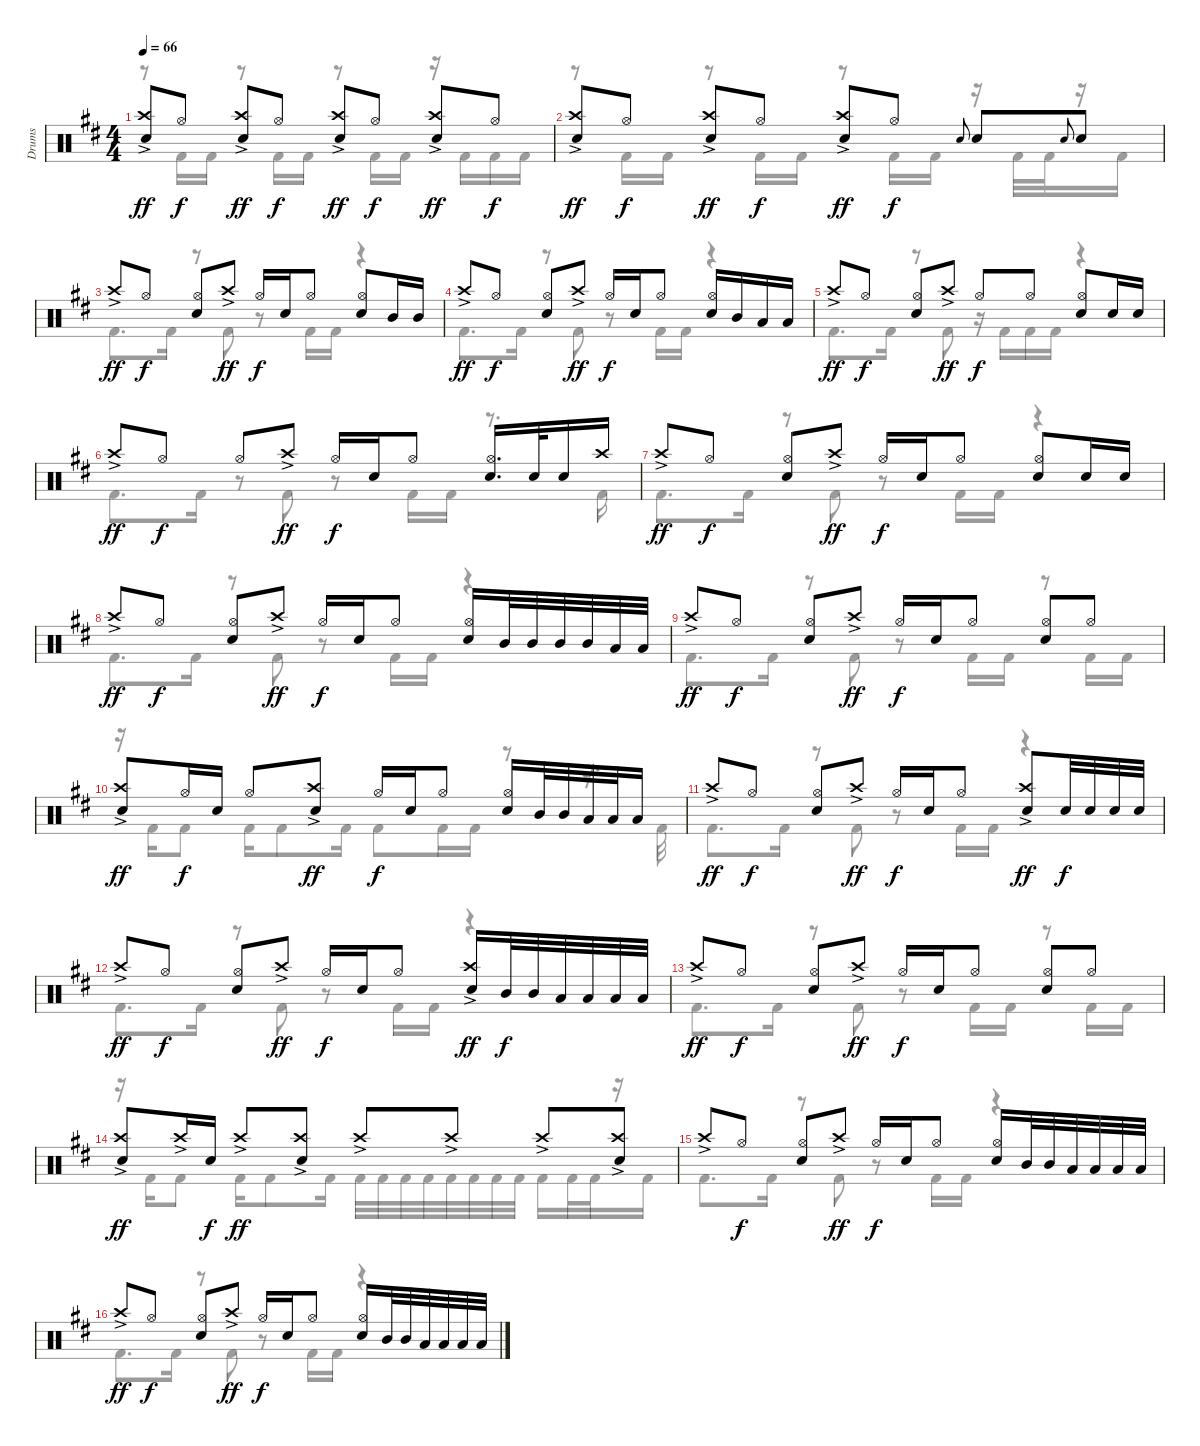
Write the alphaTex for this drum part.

\track ("Drums" "Drums") {instrument percussion}
\staff {score}
\articulation defaults
\voice
\ts (4 4)
\tempo 66
\clef neutral
\ks d
("Crash high (hit)"{ac} "Electric Snare (hit)").8{dy ff} "Hi-Hat (open)".8{dy f} ("Crash high (hit)"{ac} "Electric Snare (hit)").8{dy ff} "Hi-Hat (open)".8{dy f} ("Crash high (hit)"{ac} "Electric Snare (hit)").8{dy ff} "Hi-Hat (open)".8{dy f} ("Crash high (hit)"{ac} "Electric Snare (hit)").8{dy ff} "Hi-Hat (open)".8{dy f} |
("Crash high (hit)"{ac} "Electric Snare (hit)").8{dy ff} "Hi-Hat (open)".8{dy f} ("Crash high (hit)"{ac} "Electric Snare (hit)").8{dy ff} "Hi-Hat (open)".8{dy f} ("Crash high (hit)"{ac} "Electric Snare (hit)").8{dy ff} "Hi-Hat (open)".8{dy f} "Electric Snare (hit)".8{gr onbeat} "Electric Snare (hit)".8 "Electric Snare (hit)".8{gr onbeat} "Electric Snare (hit)".8 |
"Crash high (hit)"{ac}.8{dy ff} "Hi-Hat (open)".8{dy f} ("Hi-Hat (open)" "Electric Snare (hit)").8 "Crash high (hit)"{ac}.8{dy ff} "Hi-Hat (open)".16{dy f} "Electric Snare (hit)".16 "Hi-Hat (open)".8 ("Hi-Hat (open)" "Electric Snare (hit)").8 "Mid Tom (hit)".16 "Mid Tom (hit)".16 |
"Crash high (hit)"{ac}.8{dy ff} "Hi-Hat (open)".8{dy f} ("Hi-Hat (open)" "Electric Snare (hit)").8 "Crash high (hit)"{ac}.8{dy ff} "Hi-Hat (open)".16{dy f} "Electric Snare (hit)".16 "Hi-Hat (open)".8 ("Hi-Hat (open)" "Electric Snare (hit)").16 "Mid Tom (hit)".16 "Low Tom (hit)".16 "Low Tom (hit)".16 |
"Crash high (hit)"{ac}.8{dy ff} "Hi-Hat (open)".8{dy f} ("Hi-Hat (open)" "Electric Snare (hit)").8 "Crash high (hit)"{ac}.8{dy ff} "Hi-Hat (open)".8{dy f} "Hi-Hat (open)".8 ("Hi-Hat (open)" "Electric Snare (hit)").8 "Electric Snare (hit)".16 "Electric Snare (hit)".16 |
"Crash high (hit)"{ac}.8{dy ff} "Hi-Hat (open)".8{dy f} "Hi-Hat (open)".8 "Crash high (hit)"{ac}.8{dy ff} "Hi-Hat (open)".16{dy f} "Electric Snare (hit)".16 "Hi-Hat (open)".8 ("Hi-Hat (open)" "Electric Snare (hit)").16{d} "Electric Snare (hit)".32 "Electric Snare (hit)".16 "Crash high (hit)".16 |
"Crash high (hit)"{ac}.8{dy ff} "Hi-Hat (open)".8{dy f} ("Hi-Hat (open)" "Electric Snare (hit)").8 "Crash high (hit)"{ac}.8{dy ff} "Hi-Hat (open)".16{dy f} "Electric Snare (hit)".16 "Hi-Hat (open)".8 ("Hi-Hat (open)" "Electric Snare (hit)").8 "Electric Snare (hit)".16 "Electric Snare (hit)".16 |
"Crash high (hit)"{ac}.8{dy ff} "Hi-Hat (open)".8{dy f} ("Hi-Hat (open)" "Electric Snare (hit)").8 "Crash high (hit)"{ac}.8{dy ff} "Hi-Hat (open)".16{dy f} "Electric Snare (hit)".16 "Hi-Hat (open)".8 ("Hi-Hat (open)" "Electric Snare (hit)").16 "Mid Tom (hit)".32 "Mid Tom (hit)".32 "Mid Tom (hit)".32 "Mid Tom (hit)".32 "Low Tom (hit)".32 "Low Tom (hit)".32 |
"Crash high (hit)"{ac}.8{dy ff} "Hi-Hat (open)".8{dy f} ("Hi-Hat (open)" "Electric Snare (hit)").8 "Crash high (hit)"{ac}.8{dy ff} "Hi-Hat (open)".16{dy f} "Electric Snare (hit)".16 "Hi-Hat (open)".8 ("Hi-Hat (open)" "Electric Snare (hit)").8 "Hi-Hat (open)".8 |
("Crash high (hit)"{ac} "Electric Snare (hit)").8{dy ff} "Hi-Hat (open)".16{dy f} "Electric Snare (hit)".16 "Hi-Hat (open)".8 ("Crash high (hit)"{ac} "Electric Snare (hit)").8{dy ff} "Hi-Hat (open)".16{dy f} "Electric Snare (hit)".16 "Hi-Hat (open)".8 ("Hi-Hat (open)" "Electric Snare (hit)").16 "Mid Tom (hit)".32 "Mid Tom (hit)".32 "Low Tom (hit)".32 "Low Tom (hit)".32 "Low Tom (hit)".16 |
"Crash high (hit)"{ac}.8{dy ff} "Hi-Hat (open)".8{dy f} ("Hi-Hat (open)" "Electric Snare (hit)").8 "Crash high (hit)"{ac}.8{dy ff} "Hi-Hat (open)".16{dy f} "Electric Snare (hit)".16 "Hi-Hat (open)".8 ("Crash high (hit)"{ac} "Electric Snare (hit)").8{dy ff} "Electric Snare (hit)".32{dy f} "Electric Snare (hit)".32 "Electric Snare (hit)".32 "Electric Snare (hit)".32 |
"Crash high (hit)"{ac}.8{dy ff} "Hi-Hat (open)".8{dy f} ("Hi-Hat (open)" "Electric Snare (hit)").8 "Crash high (hit)"{ac}.8{dy ff} "Hi-Hat (open)".16{dy f} "Electric Snare (hit)".16 "Hi-Hat (open)".8 ("Crash high (hit)"{ac} "Electric Snare (hit)").16{dy ff} "Mid Tom (hit)".32{dy f} "Mid Tom (hit)".32 "Low Tom (hit)".32 "Low Tom (hit)".32 "Low Tom (hit)".32 "Low Tom (hit)".32 |
"Crash high (hit)"{ac}.8{dy ff} "Hi-Hat (open)".8{dy f} ("Hi-Hat (open)" "Electric Snare (hit)").8 "Crash high (hit)"{ac}.8{dy ff} "Hi-Hat (open)".16{dy f} "Electric Snare (hit)".16 "Hi-Hat (open)".8 ("Hi-Hat (open)" "Electric Snare (hit)").8 "Hi-Hat (open)".8 |
("Crash high (hit)"{ac} "Electric Snare (hit)").8{dy ff} "Crash high (hit)"{ac}.16 "Electric Snare (hit)".16{dy f} "Crash high (hit)"{ac}.8{dy ff} ("Crash high (hit)"{ac} "Electric Snare (hit)").8 "Crash high (hit)"{ac}.8 "Crash high (hit)"{ac}.8 "Crash high (hit)"{ac}.8 ("Crash high (hit)"{ac} "Electric Snare (hit)").8 |
"Crash high (hit)"{ac}.8 "Hi-Hat (open)".8{dy f} ("Hi-Hat (open)" "Electric Snare (hit)").8 "Crash high (hit)"{ac}.8{dy ff} "Hi-Hat (open)".16{dy f} "Electric Snare (hit)".16 "Hi-Hat (open)".8 ("Hi-Hat (open)" "Electric Snare (hit)").16 "Mid Tom (hit)".32 "Mid Tom (hit)".32 "Low Tom (hit)".32 "Low Tom (hit)".32 "Low Tom (hit)".32 "Low Tom (hit)".32 |
"Crash high (hit)"{ac}.8{dy ff} "Hi-Hat (open)".8{dy f} ("Hi-Hat (open)" "Electric Snare (hit)").8 "Crash high (hit)"{ac}.8{dy ff} "Hi-Hat (open)".16{dy f} "Electric Snare (hit)".16 "Hi-Hat (open)".8 ("Hi-Hat (open)" "Electric Snare (hit)").16 "Mid Tom (hit)".32 "Mid Tom (hit)".32 "Low Tom (hit)".32 "Low Tom (hit)".32 "Low Tom (hit)".32 "Low Tom (hit)".32
\voice
\clef neutral
\ottava regular
\simile none
\ks d
r.8{dy f} "Kick (hit) 2".16 "Kick (hit) 2".16 r.8 "Kick (hit) 2".16 "Kick (hit) 2".16 r.8 "Kick (hit) 2".16 "Kick (hit) 2".16 r.16 "Kick (hit) 2".16 "Kick (hit) 2".16 "Kick (hit) 2".16 |
r.8 "Kick (hit) 2".16 "Kick (hit) 2".16 r.8 "Kick (hit) 2".16 "Kick (hit) 2".16 r.8 "Kick (hit) 2".16 "Kick (hit) 2".16 r.16 "Kick (hit) 2".32 "Kick (hit) 2".32 r.16 "Kick (hit) 2".16 |
"Kick (hit) 2".8{d} "Kick (hit) 2".16 r.8 "Kick (hit) 2".8 r.8 "Kick (hit) 2".16 "Kick (hit) 2".16 r.4 |
"Kick (hit) 2".8{d} "Kick (hit) 2".16 r.8 "Kick (hit) 2".8 r.8 "Kick (hit) 2".16 "Kick (hit) 2".16 r.4 |
"Kick (hit) 2".8{d} "Kick (hit) 2".16 r.8 "Kick (hit) 2".8 r.16 "Kick (hit) 2".16 "Kick (hit) 2".16 "Kick (hit) 2".16 r.4 |
"Kick (hit) 2".8{d} "Kick (hit) 2".16 r.8 "Kick (hit) 2".8 r.8 "Kick (hit) 2".16 "Kick (hit) 2".16 r.8{d} "Kick (hit) 2".16 |
"Kick (hit) 2".8{d} "Kick (hit) 2".16 r.8 "Kick (hit) 2".8 r.8 "Kick (hit) 2".16 "Kick (hit) 2".16 r.4 |
"Kick (hit) 2".8{d} "Kick (hit) 2".16 r.8 "Kick (hit) 2".8 r.8 "Kick (hit) 2".16 "Kick (hit) 2".16 r.4 |
"Kick (hit) 2".8{d} "Kick (hit) 2".16 r.8 "Kick (hit) 2".8 r.8 "Kick (hit) 2".16 "Kick (hit) 2".16 r.8 "Kick (hit) 2".16 "Kick (hit) 2".16 |
r.16 "Kick (hit) 2".16 "Kick (hit) 2".8 "Kick (hit) 2".16 "Kick (hit) 2".8 "Kick (hit) 2".16 "Kick (hit) 2".8 "Kick (hit) 2".16 "Kick (hit) 2".16 r.8 r.16{d} "Kick (hit) 2".32 |
"Kick (hit) 2".8{d} "Kick (hit) 2".16 r.8 "Kick (hit) 2".8 r.8 "Kick (hit) 2".16 "Kick (hit) 2".16 r.4 |
"Kick (hit) 2".8{d} "Kick (hit) 2".16 r.8 "Kick (hit) 2".8 r.8 "Kick (hit) 2".16 "Kick (hit) 2".16 r.4 |
"Kick (hit) 2".8{d} "Kick (hit) 2".16 r.8 "Kick (hit) 2".8 r.8 "Kick (hit) 2".16 "Kick (hit) 2".16 r.8 "Kick (hit) 2".16 "Kick (hit) 2".16 |
r.16 "Kick (hit) 2".16 "Kick (hit) 2".8 "Kick (hit) 2".16 "Kick (hit) 2".8 "Kick (hit) 2".16 "Kick (hit) 2".32 "Kick (hit) 2".32 "Kick (hit) 2".32 "Kick (hit) 2".32 "Kick (hit) 2".32 "Kick (hit) 2".32 "Kick (hit) 2".32 "Kick (hit) 2".32 "Kick (hit) 2".16 "Kick (hit) 2".32 "Kick (hit) 2".32 r.16 "Kick (hit) 2".16 |
"Kick (hit) 2".8{d} "Kick (hit) 2".16 r.8 "Kick (hit) 2".8 r.8 "Kick (hit) 2".16 "Kick (hit) 2".16 r.4 |
"Kick (hit) 2".8{d} "Kick (hit) 2".16 r.8 "Kick (hit) 2".8 r.8 "Kick (hit) 2".16 "Kick (hit) 2".16 r.4
